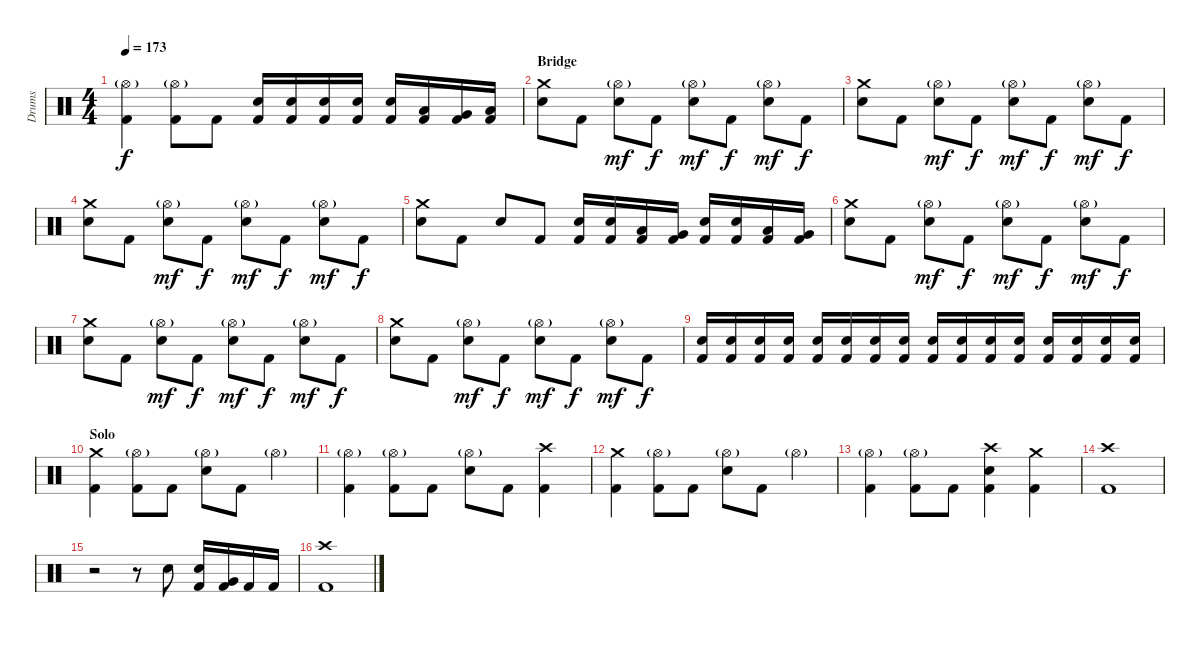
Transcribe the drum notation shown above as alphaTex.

\track ("Drums" "Drums") {instrument percussion}
\staff {score}
\articulation defaults
\ts (4 4)
\tempo 173
\clef neutral
\ks c
("Hi-Hat (open)"{g} "Kick (hit) 2").4{dy f} ("Hi-Hat (open)"{g} "Kick (hit) 2").8 "Kick (hit) 2".8 ("Snare (hit) 2" "Kick (hit) 2").16 ("Snare (hit) 2" "Kick (hit) 2").16 ("Snare (hit) 2" "Kick (hit) 2").16 ("Snare (hit) 2" "Kick (hit) 2").16 ("Snare (hit) 2" "Kick (hit) 2").16 ("Low Tom (hit)" "Kick (hit) 2").16 ("Very Low Tom (hit)" "Kick (hit) 2").16 ("Low Floor Tom (hit)" "Kick (hit) 2").16 |
\section ("" "Bridge")
("Crash medium (hit)" "Snare (hit) 2").8 "Kick (hit) 2".8 ("Hi-Hat (open)"{g} "Snare (hit) 2").8{dy mf} "Kick (hit) 2".8{dy f} ("Hi-Hat (open)"{g} "Snare (hit) 2").8{dy mf} "Kick (hit) 2".8{dy f} ("Hi-Hat (open)"{g} "Snare (hit) 2").8{dy mf} "Kick (hit) 2".8{dy f} |
("Crash medium (hit)" "Snare (hit) 2").8 "Kick (hit) 2".8 ("Hi-Hat (open)"{g} "Snare (hit) 2").8{dy mf} "Kick (hit) 2".8{dy f} ("Hi-Hat (open)"{g} "Snare (hit) 2").8{dy mf} "Kick (hit) 2".8{dy f} ("Hi-Hat (open)"{g} "Snare (hit) 2").8{dy mf} "Kick (hit) 2".8{dy f} |
("Crash medium (hit)" "Snare (hit) 2").8 "Kick (hit) 2".8 ("Hi-Hat (open)"{g} "Snare (hit) 2").8{dy mf} "Kick (hit) 2".8{dy f} ("Hi-Hat (open)"{g} "Snare (hit) 2").8{dy mf} "Kick (hit) 2".8{dy f} ("Hi-Hat (open)"{g} "Snare (hit) 2").8{dy mf} "Kick (hit) 2".8{dy f} |
("Crash medium (hit)" "Snare (hit) 2").8 "Kick (hit) 2".8 "Snare (hit) 2".8 "Kick (hit) 2".8 ("Snare (hit) 2" "Kick (hit) 2").16 ("Snare (hit) 2" "Kick (hit) 2").16 ("Low Tom (hit)" "Kick (hit) 2").16 ("Very Low Tom (hit)" "Kick (hit) 2").16 ("Snare (hit) 2" "Kick (hit) 2").16 ("Snare (hit) 2" "Kick (hit) 2").16 ("Low Tom (hit)" "Kick (hit) 2").16 ("Very Low Tom (hit)" "Kick (hit) 2").16 |
("Crash medium (hit)" "Snare (hit) 2").8 "Kick (hit) 2".8 ("Hi-Hat (open)"{g} "Snare (hit) 2").8{dy mf} "Kick (hit) 2".8{dy f} ("Hi-Hat (open)"{g} "Snare (hit) 2").8{dy mf} "Kick (hit) 2".8{dy f} ("Hi-Hat (open)"{g} "Snare (hit) 2").8{dy mf} "Kick (hit) 2".8{dy f} |
("Crash medium (hit)" "Snare (hit) 2").8 "Kick (hit) 2".8 ("Hi-Hat (open)"{g} "Snare (hit) 2").8{dy mf} "Kick (hit) 2".8{dy f} ("Hi-Hat (open)"{g} "Snare (hit) 2").8{dy mf} "Kick (hit) 2".8{dy f} ("Hi-Hat (open)"{g} "Snare (hit) 2").8{dy mf} "Kick (hit) 2".8{dy f} |
("Crash medium (hit)" "Snare (hit) 2").8 "Kick (hit) 2".8 ("Hi-Hat (open)"{g} "Snare (hit) 2").8{dy mf} "Kick (hit) 2".8{dy f} ("Hi-Hat (open)"{g} "Snare (hit) 2").8{dy mf} "Kick (hit) 2".8{dy f} ("Hi-Hat (open)"{g} "Snare (hit) 2").8{dy mf} "Kick (hit) 2".8{dy f} |
("Snare (hit) 2" "Kick (hit) 2").16 ("Snare (hit) 2" "Kick (hit) 2").16 ("Snare (hit) 2" "Kick (hit) 2").16 ("Snare (hit) 2" "Kick (hit) 2").16 ("Snare (hit) 2" "Kick (hit) 2").16 ("Snare (hit) 2" "Kick (hit) 2").16 ("Snare (hit) 2" "Kick (hit) 2").16 ("Snare (hit) 2" "Kick (hit) 2").16 ("Snare (hit) 2" "Kick (hit) 2").16 ("Snare (hit) 2" "Kick (hit) 2").16 ("Snare (hit) 2" "Kick (hit) 2").16 ("Snare (hit) 2" "Kick (hit) 2").16 ("Snare (hit) 2" "Kick (hit) 2").16 ("Snare (hit) 2" "Kick (hit) 2").16 ("Snare (hit) 2" "Kick (hit) 2").16 ("Snare (hit) 2" "Kick (hit) 2").16 |
\section ("" "Solo")
("Crash medium (hit)" "Kick (hit) 2").4 ("Hi-Hat (open)"{g} "Kick (hit) 2").8 "Kick (hit) 2".8 ("Hi-Hat (open)"{g} "Snare (hit) 2").8 "Kick (hit) 2".8 "Hi-Hat (open)"{g}.4 |
("Hi-Hat (open)"{g} "Kick (hit) 2").4 ("Hi-Hat (open)"{g} "Kick (hit) 2").8 "Kick (hit) 2".8 ("Hi-Hat (open)"{g} "Snare (hit) 2").8 "Kick (hit) 2".8 ("Crash high (hit)" "Kick (hit) 2").4 |
("Crash medium (hit)" "Kick (hit) 2").4 ("Hi-Hat (open)"{g} "Kick (hit) 2").8 "Kick (hit) 2".8 ("Hi-Hat (open)"{g} "Snare (hit) 2").8 "Kick (hit) 2".8 "Hi-Hat (open)"{g}.4 |
("Hi-Hat (open)"{g} "Kick (hit) 2").4 ("Hi-Hat (open)"{g} "Kick (hit) 2").8 "Kick (hit) 2".8 ("Crash high (hit)" "Snare (hit) 2" "Kick (hit) 2").4 ("Crash medium (hit)" "Kick (hit) 2").4 |
("Crash high (hit)" "Kick (hit) 2").1 |
r.2 r.8 "Snare (hit) 2".8 ("Snare (hit) 2" "Kick (hit) 2").16 ("Very Low Tom (hit)" "Kick (hit) 2").16 "Kick (hit) 2".16 "Kick (hit) 2".16 |
("Crash high (hit)" "Kick (hit) 2").1
